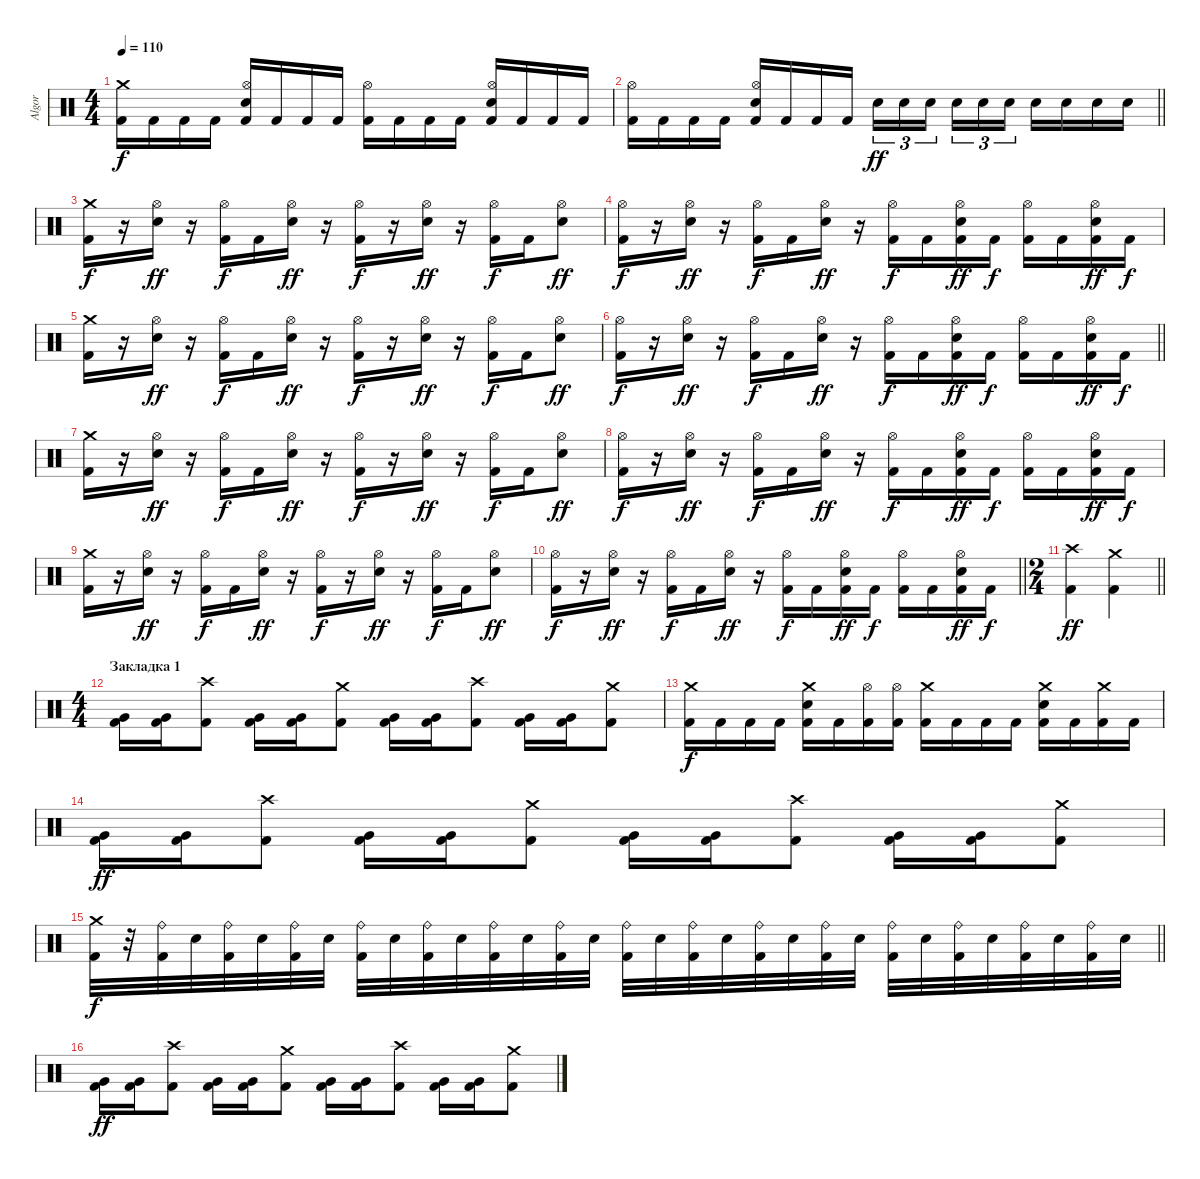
\track ("Algor" "Algor") {instrument percussion}
\staff {score}
\articulation defaults
\ts (4 4)
\tempo 110
\clef neutral
\ks c
("Crash medium (hit)" "Kick (hit) 2").16{dy f} "Kick (hit) 2".16 "Kick (hit) 2".16 "Kick (hit) 2".16 ("Hi-Hat (open)" "Snare (hit) 2" "Kick (hit) 2").16 "Kick (hit) 2".16 "Kick (hit) 2".16 "Kick (hit) 2".16 ("Hi-Hat (open)" "Kick (hit) 2").16 "Kick (hit) 2".16 "Kick (hit) 2".16 "Kick (hit) 2".16 ("Hi-Hat (open)" "Snare (hit) 2" "Kick (hit) 2").16 "Kick (hit) 2".16 "Kick (hit) 2".16 "Kick (hit) 2".16 |
\barLineRight lightlight
("Hi-Hat (open)" "Kick (hit) 2").16 "Kick (hit) 2".16 "Kick (hit) 2".16 "Kick (hit) 2".16 ("Hi-Hat (open)" "Snare (hit) 2" "Kick (hit) 2").16 "Kick (hit) 2".16 "Kick (hit) 2".16 "Kick (hit) 2".16 "Snare (hit) 2".16{tu (3 2) dy ff} "Snare (hit) 2".16{tu (3 2)} "Snare (hit) 2".16{tu (3 2) beam splitsecondary} "Snare (hit) 2".16{tu (3 2)} "Snare (hit) 2".16{tu (3 2)} "Snare (hit) 2".16{tu (3 2)} "Snare (hit) 2".16 "Snare (hit) 2".16 "Snare (hit) 2".16 "Snare (hit) 2".16 |
\section ("" "")
("Crash medium (hit)" "Kick (hit) 2").16{dy f} r.16 ("Hi-Hat (open)" "Snare (hit) 2").16{dy ff} r.16 ("Hi-Hat (open)" "Kick (hit) 2").16{dy f} "Kick (hit) 2".16 ("Hi-Hat (open)" "Snare (hit) 2").16{dy ff} r.16 ("Hi-Hat (open)" "Kick (hit) 2").16{dy f} r.16 ("Hi-Hat (open)" "Snare (hit) 2").16{dy ff} r.16 ("Hi-Hat (open)" "Kick (hit) 2").16{dy f} "Kick (hit) 2".16 ("Hi-Hat (open)" "Snare (hit) 2").8{dy ff} |
("Hi-Hat (open)" "Kick (hit) 2").16{dy f} r.16 ("Hi-Hat (open)" "Snare (hit) 2").16{dy ff} r.16 ("Hi-Hat (open)" "Kick (hit) 2").16{dy f} "Kick (hit) 2".16 ("Hi-Hat (open)" "Snare (hit) 2").16{dy ff} r.16 ("Hi-Hat (open)" "Kick (hit) 2").16{dy f} "Kick (hit) 2".16 ("Hi-Hat (open)" "Snare (hit) 2" "Kick (hit) 2").16{dy ff} "Kick (hit) 2".16{dy f} ("Hi-Hat (open)" "Kick (hit) 2").16 "Kick (hit) 2".16 ("Hi-Hat (open)" "Snare (hit) 2" "Kick (hit) 2").16{dy ff} "Kick (hit) 2".16{dy f} |
("Crash medium (hit)" "Kick (hit) 2").16 r.16 ("Hi-Hat (open)" "Snare (hit) 2").16{dy ff} r.16 ("Hi-Hat (open)" "Kick (hit) 2").16{dy f} "Kick (hit) 2".16 ("Hi-Hat (open)" "Snare (hit) 2").16{dy ff} r.16 ("Hi-Hat (open)" "Kick (hit) 2").16{dy f} r.16 ("Hi-Hat (open)" "Snare (hit) 2").16{dy ff} r.16 ("Hi-Hat (open)" "Kick (hit) 2").16{dy f} "Kick (hit) 2".16 ("Hi-Hat (open)" "Snare (hit) 2").8{dy ff} |
\barLineRight lightlight
("Hi-Hat (open)" "Kick (hit) 2").16{dy f} r.16 ("Hi-Hat (open)" "Snare (hit) 2").16{dy ff} r.16 ("Hi-Hat (open)" "Kick (hit) 2").16{dy f} "Kick (hit) 2".16 ("Hi-Hat (open)" "Snare (hit) 2").16{dy ff} r.16 ("Hi-Hat (open)" "Kick (hit) 2").16{dy f} "Kick (hit) 2".16 ("Hi-Hat (open)" "Snare (hit) 2" "Kick (hit) 2").16{dy ff} "Kick (hit) 2".16{dy f} ("Hi-Hat (open)" "Kick (hit) 2").16 "Kick (hit) 2".16 ("Hi-Hat (open)" "Snare (hit) 2" "Kick (hit) 2").16{dy ff} "Kick (hit) 2".16{dy f} |
("Crash medium (hit)" "Kick (hit) 2").16 r.16 ("Hi-Hat (open)" "Snare (hit) 2").16{dy ff} r.16 ("Hi-Hat (open)" "Kick (hit) 2").16{dy f} "Kick (hit) 2".16 ("Hi-Hat (open)" "Snare (hit) 2").16{dy ff} r.16 ("Hi-Hat (open)" "Kick (hit) 2").16{dy f} r.16 ("Hi-Hat (open)" "Snare (hit) 2").16{dy ff} r.16 ("Hi-Hat (open)" "Kick (hit) 2").16{dy f} "Kick (hit) 2".16 ("Hi-Hat (open)" "Snare (hit) 2").8{dy ff} |
("Hi-Hat (open)" "Kick (hit) 2").16{dy f} r.16 ("Hi-Hat (open)" "Snare (hit) 2").16{dy ff} r.16 ("Hi-Hat (open)" "Kick (hit) 2").16{dy f} "Kick (hit) 2".16 ("Hi-Hat (open)" "Snare (hit) 2").16{dy ff} r.16 ("Hi-Hat (open)" "Kick (hit) 2").16{dy f} "Kick (hit) 2".16 ("Hi-Hat (open)" "Snare (hit) 2" "Kick (hit) 2").16{dy ff} "Kick (hit) 2".16{dy f} ("Hi-Hat (open)" "Kick (hit) 2").16 "Kick (hit) 2".16 ("Hi-Hat (open)" "Snare (hit) 2" "Kick (hit) 2").16{dy ff} "Kick (hit) 2".16{dy f} |
("Crash medium (hit)" "Kick (hit) 2").16 r.16 ("Hi-Hat (open)" "Snare (hit) 2").16{dy ff} r.16 ("Hi-Hat (open)" "Kick (hit) 2").16{dy f} "Kick (hit) 2".16 ("Hi-Hat (open)" "Snare (hit) 2").16{dy ff} r.16 ("Hi-Hat (open)" "Kick (hit) 2").16{dy f} r.16 ("Hi-Hat (open)" "Snare (hit) 2").16{dy ff} r.16 ("Hi-Hat (open)" "Kick (hit) 2").16{dy f} "Kick (hit) 2".16 ("Hi-Hat (open)" "Snare (hit) 2").8{dy ff} |
\barLineRight lightlight
("Hi-Hat (open)" "Kick (hit) 2").16{dy f} r.16 ("Hi-Hat (open)" "Snare (hit) 2").16{dy ff} r.16 ("Hi-Hat (open)" "Kick (hit) 2").16{dy f} "Kick (hit) 2".16 ("Hi-Hat (open)" "Snare (hit) 2").16{dy ff} r.16 ("Hi-Hat (open)" "Kick (hit) 2").16{dy f} "Kick (hit) 2".16 ("Hi-Hat (open)" "Snare (hit) 2" "Kick (hit) 2").16{dy ff} "Kick (hit) 2".16{dy f} ("Hi-Hat (open)" "Kick (hit) 2").16 "Kick (hit) 2".16 ("Hi-Hat (open)" "Snare (hit) 2" "Kick (hit) 2").16{dy ff} "Kick (hit) 2".16{dy f} |
\ts (2 4)
\barLineRight lightlight
("Crash high (hit)" "Kick (hit) 2").4{dy ff} ("Crash medium (hit)" "Kick (hit) 2").4 |
\ts (4 4)
\section ("" "Закладка 1")
("Very Low Tom (hit)" "Kick (hit) 2").16 ("Very Low Tom (hit)" "Kick (hit) 2").16 ("Crash high (hit)" "Kick (hit) 2").8 ("Very Low Tom (hit)" "Kick (hit) 2").16 ("Very Low Tom (hit)" "Kick (hit) 2").16 ("Crash medium (hit)" "Kick (hit) 2").8 ("Very Low Tom (hit)" "Kick (hit) 2").16 ("Very Low Tom (hit)" "Kick (hit) 2").16 ("Crash high (hit)" "Kick (hit) 2").8 ("Very Low Tom (hit)" "Kick (hit) 2").16 ("Very Low Tom (hit)" "Kick (hit) 2").16 ("Crash medium (hit)" "Kick (hit) 2").8 |
("Crash medium (hit)" "Kick (hit) 2").16{dy f} "Kick (hit) 2".16 "Kick (hit) 2".16 "Kick (hit) 2".16 ("Crash medium (hit)" "Snare (hit) 2" "Kick (hit) 2").16 "Kick (hit) 2".16 ("Hi-Hat (open)" "Kick (hit) 2").16 ("Hi-Hat (open)" "Kick (hit) 2").16 ("Crash medium (hit)" "Kick (hit) 2").16 "Kick (hit) 2".16 "Kick (hit) 2".16 "Kick (hit) 2".16 ("Crash medium (hit)" "Snare (hit) 2" "Kick (hit) 2").16 "Kick (hit) 2".16 ("Crash medium (hit)" "Kick (hit) 2").16 "Kick (hit) 2".16 |
("Very Low Tom (hit)" "Kick (hit) 2").16{dy ff} ("Very Low Tom (hit)" "Kick (hit) 2").16 ("Crash high (hit)" "Kick (hit) 2").8 ("Very Low Tom (hit)" "Kick (hit) 2").16 ("Very Low Tom (hit)" "Kick (hit) 2").16 ("Crash medium (hit)" "Kick (hit) 2").8 ("Very Low Tom (hit)" "Kick (hit) 2").16 ("Very Low Tom (hit)" "Kick (hit) 2").16 ("Crash high (hit)" "Kick (hit) 2").8 ("Very Low Tom (hit)" "Kick (hit) 2").16 ("Very Low Tom (hit)" "Kick (hit) 2").16 ("Crash medium (hit)" "Kick (hit) 2").8 |
\barLineRight lightlight
("Crash medium (hit)" "Kick (hit) 2").32{dy f} r.32 ("Ride (bell)" "Kick (hit) 2").32 "Snare (hit) 2".32 ("Ride (bell)" "Kick (hit) 2").32 "Snare (hit) 2".32 ("Ride (bell)" "Kick (hit) 2").32 "Snare (hit) 2".32 ("Ride (bell)" "Kick (hit) 2").32 "Snare (hit) 2".32 ("Ride (bell)" "Kick (hit) 2").32 "Snare (hit) 2".32 ("Ride (bell)" "Kick (hit) 2").32 "Snare (hit) 2".32 ("Ride (bell)" "Kick (hit) 2").32 "Snare (hit) 2".32 ("Ride (bell)" "Kick (hit) 2").32 "Snare (hit) 2".32 ("Ride (bell)" "Kick (hit) 2").32 "Snare (hit) 2".32 ("Ride (bell)" "Kick (hit) 2").32 "Snare (hit) 2".32 ("Ride (bell)" "Kick (hit) 2").32 "Snare (hit) 2".32 ("Ride (bell)" "Kick (hit) 2").32 "Snare (hit) 2".32 ("Ride (bell)" "Kick (hit) 2").32 "Snare (hit) 2".32 ("Ride (bell)" "Kick (hit) 2").32 "Snare (hit) 2".32 ("Ride (bell)" "Kick (hit) 2").32 "Snare (hit) 2".32 |
("Very Low Tom (hit)" "Kick (hit) 2").16{dy ff} ("Very Low Tom (hit)" "Kick (hit) 2").16 ("Crash high (hit)" "Kick (hit) 2").8 ("Very Low Tom (hit)" "Kick (hit) 2").16 ("Very Low Tom (hit)" "Kick (hit) 2").16 ("Crash medium (hit)" "Kick (hit) 2").8 ("Very Low Tom (hit)" "Kick (hit) 2").16 ("Very Low Tom (hit)" "Kick (hit) 2").16 ("Crash high (hit)" "Kick (hit) 2").8 ("Very Low Tom (hit)" "Kick (hit) 2").16 ("Very Low Tom (hit)" "Kick (hit) 2").16 ("Crash medium (hit)" "Kick (hit) 2").8
